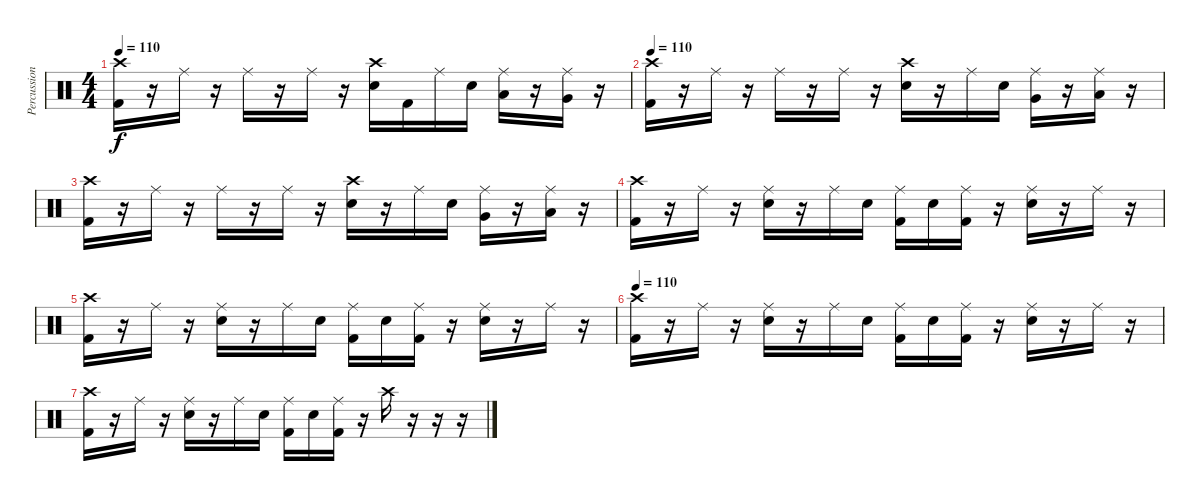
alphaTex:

\track ("Percussion" "Percussion") {instrument percussion}
\staff {score}
\articulation defaults
\ts (4 4)
\tempo 110
\clef neutral
\ks c
("Crash high (hit)" "Kick (hit) 2").16{dy f} r.16 "Ride (middle)".16 r.16 "Ride (middle)".16 r.16 "Ride (middle)".16 r.16 ("Crash high (hit)" "Electric Snare (hit)").16 "Kick (hit) 2".16 "Ride (middle)".16 "Electric Snare (hit)".16 ("Ride (middle)" "Low Tom (hit)").16 r.16 ("Ride (middle)" "Very Low Tom (hit)").16 r.16 |
\tempo 110
("Crash high (hit)" "Kick (hit) 2").16 r.16 "Ride (middle)".16 r.16 "Ride (middle)".16 r.16 "Ride (middle)".16 r.16 ("Crash high (hit)" "Electric Snare (hit)").16 r.16 "Ride (middle)".16 "Electric Snare (hit)".16 ("Ride (middle)" "Very Low Tom (hit)").16 r.16 ("Ride (middle)" "Low Floor Tom (hit)").16 r.16 |
("Crash high (hit)" "Kick (hit) 2").16 r.16 "Ride (middle)".16 r.16 "Ride (middle)".16 r.16 "Ride (middle)".16 r.16 ("Crash high (hit)" "Electric Snare (hit)").16 r.16 "Ride (middle)".16 "Electric Snare (hit)".16 ("Ride (middle)" "Very Low Tom (hit)").16 r.16 ("Ride (middle)" "Low Floor Tom (hit)").16 r.16 |
("Crash high (hit)" "Kick (hit) 2").16 r.16 "Ride (middle)".16 r.16 ("Ride (middle)" "Electric Snare (hit)").16 r.16 "Ride (middle)".16 "Electric Snare (hit)".16 ("Ride (middle)" "Kick (hit) 2").16 "Electric Snare (hit)".16 ("Ride (middle)" "Kick (hit) 2").16 r.16 ("Ride (middle)" "Electric Snare (hit)").16 r.16 "Ride (middle)".16 r.16 |
("Crash high (hit)" "Kick (hit) 2").16 r.16 "Ride (middle)".16 r.16 ("Ride (middle)" "Electric Snare (hit)").16 r.16 "Ride (middle)".16 "Electric Snare (hit)".16 ("Ride (middle)" "Kick (hit) 2").16 "Electric Snare (hit)".16 ("Ride (middle)" "Kick (hit) 2").16 r.16 ("Ride (middle)" "Electric Snare (hit)").16 r.16 "Ride (middle)".16 r.16 |
\tempo 110
("Crash high (hit)" "Kick (hit) 2").16 r.16 "Ride (middle)".16 r.16 ("Ride (middle)" "Electric Snare (hit)").16 r.16 "Ride (middle)".16 "Electric Snare (hit)".16 ("Ride (middle)" "Kick (hit) 2").16 "Electric Snare (hit)".16 ("Ride (middle)" "Kick (hit) 2").16 r.16 ("Ride (middle)" "Electric Snare (hit)").16 r.16 "Ride (middle)".16 r.16 |
("Crash high (hit)" "Kick (hit) 2").16 r.16 "Ride (middle)".16 r.16 ("Ride (middle)" "Electric Snare (hit)").16 r.16 "Ride (middle)".16 "Electric Snare (hit)".16 ("Ride (middle)" "Kick (hit) 2").16 "Electric Snare (hit)".16 ("Ride (middle)" "Kick (hit) 2").16 r.16 "Crash high (hit)".16 r.16 r.16 r.16
